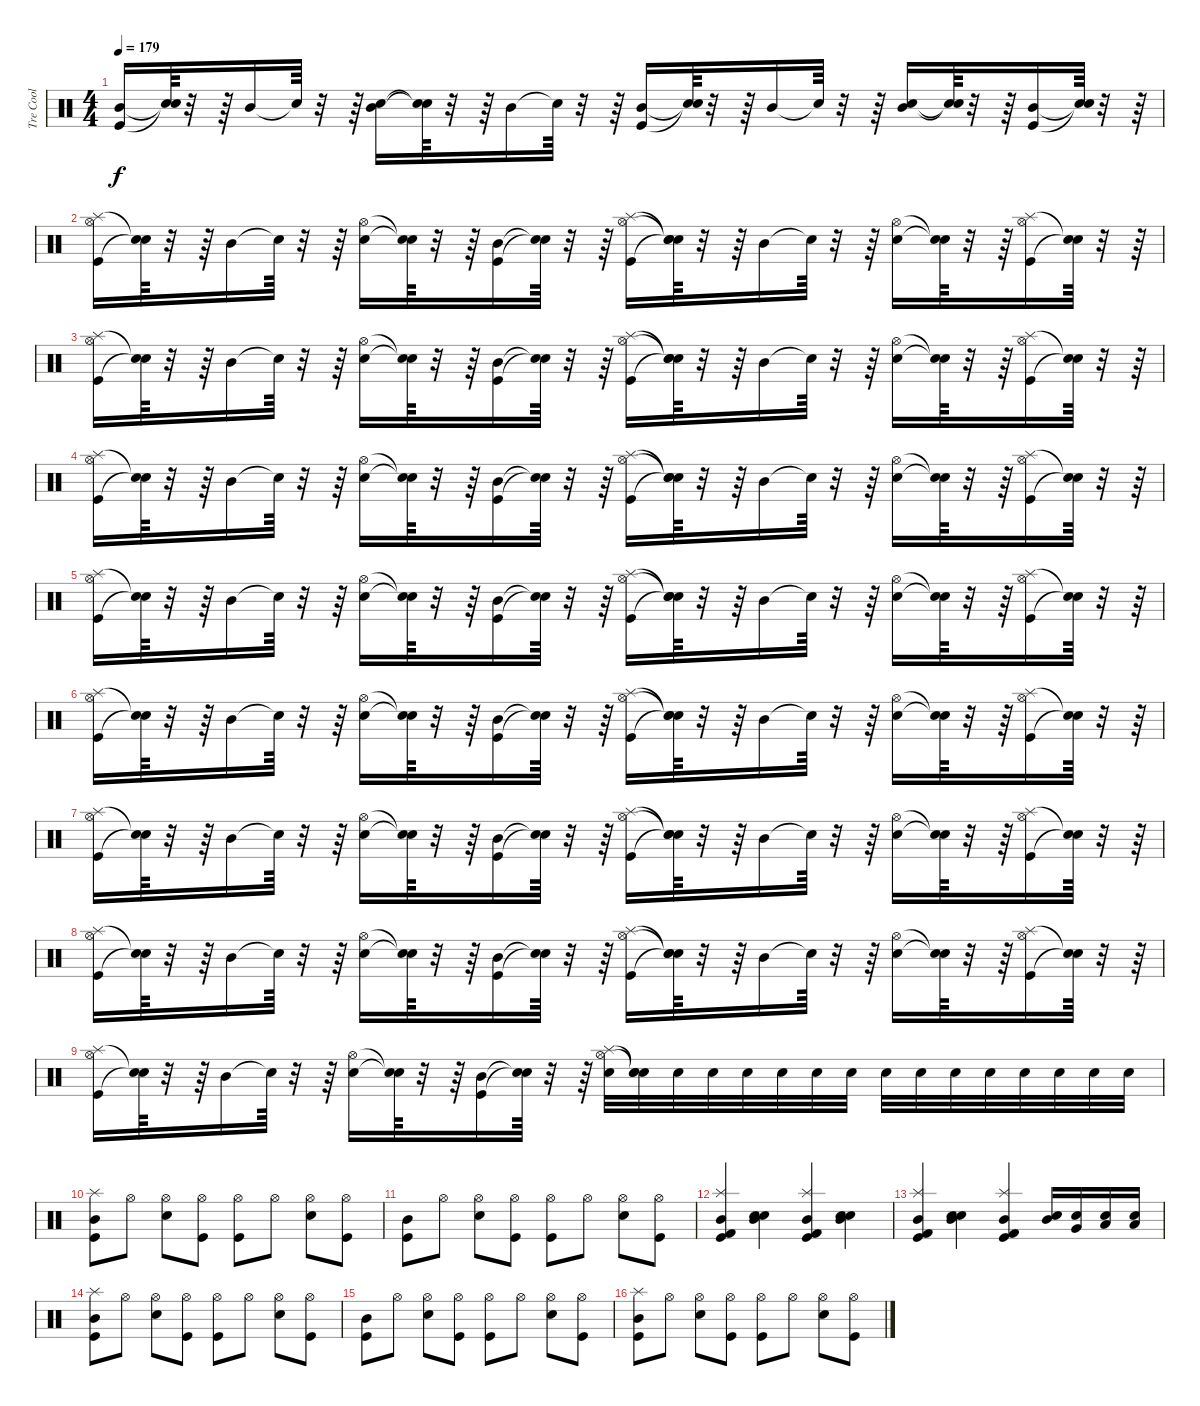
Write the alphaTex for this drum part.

\track ("Tre Cool" "Tre Cool") {instrument percussion}
\staff {score}
\articulation defaults
\ts (4 4)
\tempo 179
\clef neutral
\ks c
("Mid Tom (hit)" "Kick (hit)").16{dy f} ("Snare (hit)"{t} "Snare (hit)"{t}).64 r.32 r.64 "Mid Tom (hit)".16 "Snare (hit)"{t}.64 r.32 r.64 ("Mid Tom (hit)" "Snare (hit) 2").16 ("Snare (hit)"{t} "Snare (hit)"{t}).64 r.32 r.64 "Mid Tom (hit)".16 "Snare (hit)"{t}.64 r.32 r.64 ("Mid Tom (hit)" "Kick (hit)").16 ("Snare (hit)"{t} "Snare (hit)"{t}).64 r.32 r.64 "Mid Tom (hit)".16 "Snare (hit)"{t}.64 r.32 r.64 ("Mid Tom (hit)" "Snare (hit) 2").16 ("Snare (hit)"{t} "Snare (hit)"{t}).64 r.32 r.64 ("Mid Tom (hit)" "Kick (hit)").16 ("Snare (hit)"{t} "Snare (hit)"{t}).64 r.32 r.64 |
("Kick (hit)" "Splash (hit)" "Hi-Hat (open)").16 ("Snare (hit)"{t} "Snare (hit)"{t}).64 r.32 r.64 "Mid Tom (hit)".16 "Snare (hit)"{t}.64 r.32 r.64 ("Hi-Hat (open)" "Snare (hit) 2").16 ("Snare (hit)"{t} "Snare (hit)"{t}).64 r.32 r.64 ("Kick (hit)" "Mid Tom (hit)").16 ("Snare (hit)"{t} "Snare (hit)"{t}).64 r.32 r.64 ("Kick (hit)" "Splash (hit)" "Hi-Hat (open)").16 ("Snare (hit)"{t} "Snare (hit)"{t} "Snare (hit)"{t}).64 r.32 r.64 "Mid Tom (hit)".16 "Snare (hit)"{t}.64 r.32 r.64 ("Hi-Hat (open)" "Snare (hit) 2").16 ("Snare (hit)"{t} "Snare (hit)"{t}).64 r.32 r.64 ("Splash (hit)" "Kick (hit)" "Hi-Hat (open)").16 ("Snare (hit)"{t} "Snare (hit)"{t}).64 r.32 r.64 |
("Kick (hit)" "Splash (hit)" "Hi-Hat (open)").16 ("Snare (hit)"{t} "Snare (hit)"{t}).64 r.32 r.64 "Mid Tom (hit)".16 "Snare (hit)"{t}.64 r.32 r.64 ("Hi-Hat (open)" "Snare (hit) 2").16 ("Snare (hit)"{t} "Snare (hit)"{t}).64 r.32 r.64 ("Kick (hit)" "Mid Tom (hit)").16 ("Snare (hit)"{t} "Snare (hit)"{t}).64 r.32 r.64 ("Kick (hit)" "Splash (hit)" "Hi-Hat (open)").16 ("Snare (hit)"{t} "Snare (hit)"{t} "Snare (hit)"{t}).64 r.32 r.64 "Mid Tom (hit)".16 "Snare (hit)"{t}.64 r.32 r.64 ("Hi-Hat (open)" "Snare (hit) 2").16 ("Snare (hit)"{t} "Snare (hit)"{t}).64 r.32 r.64 ("Splash (hit)" "Kick (hit)" "Hi-Hat (open)").16 ("Snare (hit)"{t} "Snare (hit)"{t}).64 r.32 r.64 |
("Kick (hit)" "Splash (hit)" "Hi-Hat (open)").16 ("Snare (hit)"{t} "Snare (hit)"{t}).64 r.32 r.64 "Mid Tom (hit)".16 "Snare (hit)"{t}.64 r.32 r.64 ("Hi-Hat (open)" "Snare (hit) 2").16 ("Snare (hit)"{t} "Snare (hit)"{t}).64 r.32 r.64 ("Kick (hit)" "Mid Tom (hit)").16 ("Snare (hit)"{t} "Snare (hit)"{t}).64 r.32 r.64 ("Kick (hit)" "Splash (hit)" "Hi-Hat (open)").16 ("Snare (hit)"{t} "Snare (hit)"{t} "Snare (hit)"{t}).64 r.32 r.64 "Mid Tom (hit)".16 "Snare (hit)"{t}.64 r.32 r.64 ("Hi-Hat (open)" "Snare (hit) 2").16 ("Snare (hit)"{t} "Snare (hit)"{t}).64 r.32 r.64 ("Splash (hit)" "Kick (hit)" "Hi-Hat (open)").16 ("Snare (hit)"{t} "Snare (hit)"{t}).64 r.32 r.64 |
("Kick (hit)" "Splash (hit)" "Hi-Hat (open)").16 ("Snare (hit)"{t} "Snare (hit)"{t}).64 r.32 r.64 "Mid Tom (hit)".16 "Snare (hit)"{t}.64 r.32 r.64 ("Hi-Hat (open)" "Snare (hit) 2").16 ("Snare (hit)"{t} "Snare (hit)"{t}).64 r.32 r.64 ("Kick (hit)" "Mid Tom (hit)").16 ("Snare (hit)"{t} "Snare (hit)"{t}).64 r.32 r.64 ("Kick (hit)" "Splash (hit)" "Hi-Hat (open)").16 ("Snare (hit)"{t} "Snare (hit)"{t} "Snare (hit)"{t}).64 r.32 r.64 "Mid Tom (hit)".16 "Snare (hit)"{t}.64 r.32 r.64 ("Hi-Hat (open)" "Snare (hit) 2").16 ("Snare (hit)"{t} "Snare (hit)"{t}).64 r.32 r.64 ("Splash (hit)" "Kick (hit)" "Hi-Hat (open)").16 ("Snare (hit)"{t} "Snare (hit)"{t}).64 r.32 r.64 |
("Kick (hit)" "Splash (hit)" "Hi-Hat (open)").16 ("Snare (hit)"{t} "Snare (hit)"{t}).64 r.32 r.64 "Mid Tom (hit)".16 "Snare (hit)"{t}.64 r.32 r.64 ("Hi-Hat (open)" "Snare (hit) 2").16 ("Snare (hit)"{t} "Snare (hit)"{t}).64 r.32 r.64 ("Kick (hit)" "Mid Tom (hit)").16 ("Snare (hit)"{t} "Snare (hit)"{t}).64 r.32 r.64 ("Kick (hit)" "Splash (hit)" "Hi-Hat (open)").16 ("Snare (hit)"{t} "Snare (hit)"{t} "Snare (hit)"{t}).64 r.32 r.64 "Mid Tom (hit)".16 "Snare (hit)"{t}.64 r.32 r.64 ("Hi-Hat (open)" "Snare (hit) 2").16 ("Snare (hit)"{t} "Snare (hit)"{t}).64 r.32 r.64 ("Splash (hit)" "Kick (hit)" "Hi-Hat (open)").16 ("Snare (hit)"{t} "Snare (hit)"{t}).64 r.32 r.64 |
("Kick (hit)" "Splash (hit)" "Hi-Hat (open)").16 ("Snare (hit)"{t} "Snare (hit)"{t}).64 r.32 r.64 "Mid Tom (hit)".16 "Snare (hit)"{t}.64 r.32 r.64 ("Hi-Hat (open)" "Snare (hit) 2").16 ("Snare (hit)"{t} "Snare (hit)"{t}).64 r.32 r.64 ("Kick (hit)" "Mid Tom (hit)").16 ("Snare (hit)"{t} "Snare (hit)"{t}).64 r.32 r.64 ("Kick (hit)" "Splash (hit)" "Hi-Hat (open)").16 ("Snare (hit)"{t} "Snare (hit)"{t} "Snare (hit)"{t}).64 r.32 r.64 "Mid Tom (hit)".16 "Snare (hit)"{t}.64 r.32 r.64 ("Hi-Hat (open)" "Snare (hit) 2").16 ("Snare (hit)"{t} "Snare (hit)"{t}).64 r.32 r.64 ("Splash (hit)" "Kick (hit)" "Hi-Hat (open)").16 ("Snare (hit)"{t} "Snare (hit)"{t}).64 r.32 r.64 |
("Kick (hit)" "Splash (hit)" "Hi-Hat (open)").16 ("Snare (hit)"{t} "Snare (hit)"{t}).64 r.32 r.64 "Mid Tom (hit)".16 "Snare (hit)"{t}.64 r.32 r.64 ("Hi-Hat (open)" "Snare (hit) 2").16 ("Snare (hit)"{t} "Snare (hit)"{t}).64 r.32 r.64 ("Kick (hit)" "Mid Tom (hit)").16 ("Snare (hit)"{t} "Snare (hit)"{t}).64 r.32 r.64 ("Kick (hit)" "Splash (hit)" "Hi-Hat (open)").16 ("Snare (hit)"{t} "Snare (hit)"{t} "Snare (hit)"{t}).64 r.32 r.64 "Mid Tom (hit)".16 "Snare (hit)"{t}.64 r.32 r.64 ("Hi-Hat (open)" "Snare (hit) 2").16 ("Snare (hit)"{t} "Snare (hit)"{t}).64 r.32 r.64 ("Splash (hit)" "Kick (hit)" "Hi-Hat (open)").16 ("Snare (hit)"{t} "Snare (hit)"{t}).64 r.32 r.64 |
("Kick (hit)" "Splash (hit)" "Hi-Hat (open)").16 ("Snare (hit)"{t} "Snare (hit)"{t}).64 r.32 r.64 "Mid Tom (hit)".16 "Snare (hit)"{t}.64 r.32 r.64 ("Hi-Hat (open)" "Snare (hit) 2").16 ("Snare (hit)"{t} "Snare (hit)"{t}).64 r.32 r.64 ("Kick (hit)" "Mid Tom (hit)").16 ("Snare (hit)"{t} "Snare (hit)"{t}).64 r.32 r.64 ("Snare (hit) 2" "Splash (hit)" "Hi-Hat (open)").32 ("Snare (hit) 2" "Snare (hit)"{t} "Snare (hit)"{t}).32 "Snare (hit) 2".32 "Snare (hit) 2".32 "Snare (hit) 2".32 "Snare (hit) 2".32 "Snare (hit) 2".32 "Snare (hit) 2".32 "Snare (hit) 2".32 "Snare (hit) 2".32 "Snare (hit) 2".32 "Snare (hit) 2".32 "Snare (hit) 2".32 "Snare (hit) 2".32 "Snare (hit) 2".32 "Snare (hit) 2".32 |
("Splash (hit)" "Mid Tom (hit)" "Kick (hit)").8 "Hi-Hat (open)".8 ("Hi-Hat (open)" "Snare (hit) 2").8 ("Hi-Hat (open)" "Kick (hit)").8 ("Hi-Hat (open)" "Kick (hit)").8 "Hi-Hat (open)".8 ("Hi-Hat (open)" "Snare (hit) 2").8 ("Hi-Hat (open)" "Kick (hit)").8 |
("Mid Tom (hit)" "Kick (hit)").8 "Hi-Hat (open)".8 ("Hi-Hat (open)" "Snare (hit) 2").8 ("Hi-Hat (open)" "Kick (hit)").8 ("Hi-Hat (open)" "Kick (hit)").8 "Hi-Hat (open)".8 ("Hi-Hat (open)" "Snare (hit) 2").8 ("Hi-Hat (open)" "Kick (hit)").8 |
("Mid Tom (hit)" "Kick (hit)" "Splash (hit)" "Kick (hit) 2").4 ("Mid Tom (hit)" "Snare (hit) 2" "Electric Snare (hit)").4 ("Mid Tom (hit)" "Kick (hit)" "Splash (hit)" "Kick (hit) 2").4 ("Mid Tom (hit)" "Snare (hit) 2" "Electric Snare (hit)").4 |
("Mid Tom (hit)" "Kick (hit)" "Splash (hit)" "Kick (hit) 2").4 ("Mid Tom (hit)" "Snare (hit) 2" "Electric Snare (hit)").4 ("Mid Tom (hit)" "Kick (hit)" "Splash (hit)" "Kick (hit) 2").4 ("Electric Snare (hit)" "Mid Tom (hit)").16 ("Electric Snare (hit)" "Very Low Tom (hit)").16 ("Electric Snare (hit)" "Low Tom (hit)").16 ("Electric Snare (hit)" "Low Tom (hit)").16 |
("Splash (hit)" "Mid Tom (hit)" "Kick (hit)").8 "Hi-Hat (open)".8 ("Hi-Hat (open)" "Snare (hit) 2").8 ("Hi-Hat (open)" "Kick (hit)").8 ("Hi-Hat (open)" "Kick (hit)").8 "Hi-Hat (open)".8 ("Hi-Hat (open)" "Snare (hit) 2").8 ("Hi-Hat (open)" "Kick (hit)").8 |
("Mid Tom (hit)" "Kick (hit)").8 "Hi-Hat (open)".8 ("Hi-Hat (open)" "Snare (hit) 2").8 ("Hi-Hat (open)" "Kick (hit)").8 ("Hi-Hat (open)" "Kick (hit)").8 "Hi-Hat (open)".8 ("Hi-Hat (open)" "Snare (hit) 2").8 ("Hi-Hat (open)" "Kick (hit)").8 |
("Splash (hit)" "Mid Tom (hit)" "Kick (hit)").8 "Hi-Hat (open)".8 ("Hi-Hat (open)" "Snare (hit) 2").8 ("Hi-Hat (open)" "Kick (hit)").8 ("Hi-Hat (open)" "Kick (hit)").8 "Hi-Hat (open)".8 ("Hi-Hat (open)" "Snare (hit) 2").8 ("Hi-Hat (open)" "Kick (hit)").8
